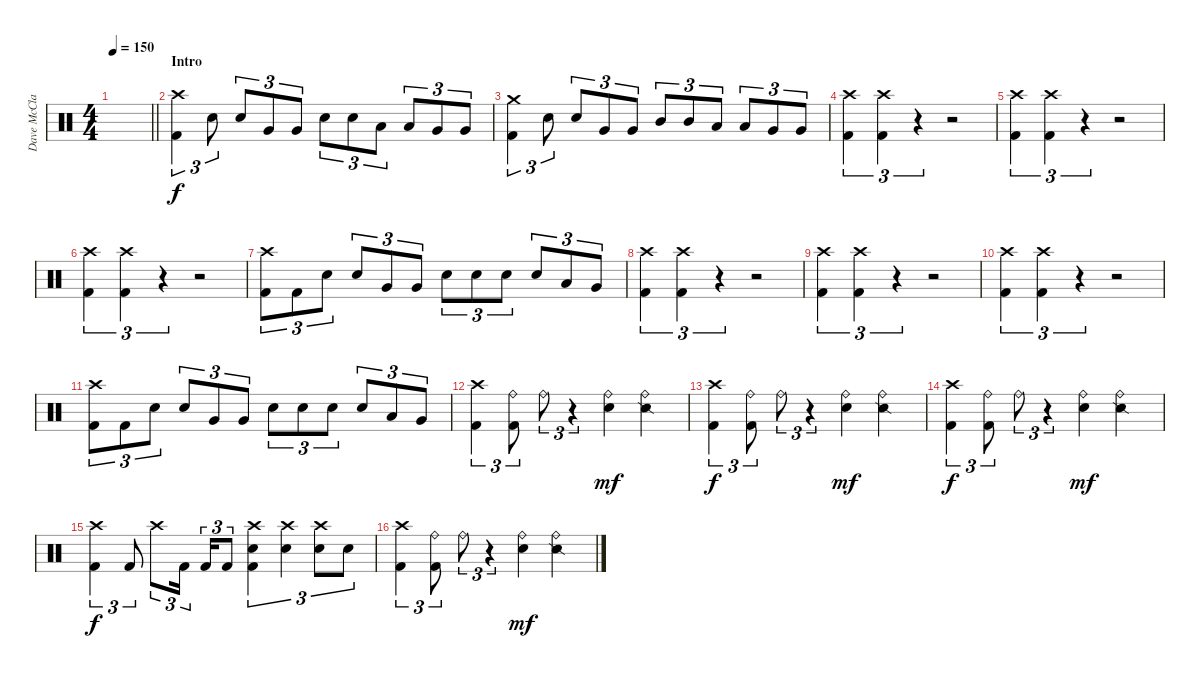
\track ("Dave McClain" "Dave McCla") {instrument percussion}
\staff {score}
\articulation defaults
\ts (4 4)
\tempo 150
\clef neutral
\barLineRight lightlight
\ks c
|
\section ("" "Intro")
("Crash high (hit)" "Kick (hit) 2").4{tu (3 2)} "Snare (hit) 2".8{tu (3 2)} "Snare (hit) 2".8{tu (3 2)} "Very Low Tom (hit)".8{tu (3 2)} "Very Low Tom (hit)".8{tu (3 2)} "Snare (hit) 2".8{tu (3 2)} "Snare (hit) 2".8{tu (3 2)} "Low Tom (hit)".8{tu (3 2)} "Low Tom (hit)".8{tu (3 2)} "Very Low Tom (hit)".8{tu (3 2)} "Very Low Tom (hit)".8{tu (3 2)} |
("Crash medium (hit)" "Kick (hit) 2").4{tu (3 2)} "Snare (hit) 2".8{tu (3 2)} "Snare (hit) 2".8{tu (3 2)} "Very Low Tom (hit)".8{tu (3 2)} "Very Low Tom (hit)".8{tu (3 2)} "Mid Tom (hit)".8{tu (3 2)} "Mid Tom (hit)".8{tu (3 2)} "Low Tom (hit)".8{tu (3 2)} "Low Tom (hit)".8{tu (3 2)} "Very Low Tom (hit)".8{tu (3 2)} "Very Low Tom (hit)".8{tu (3 2)} |
("Crash high (hit)" "Kick (hit) 2").4{tu (3 2)} ("Crash high (hit)" "Kick (hit) 2").4{tu (3 2)} r.4{tu (3 2)} r.2 |
("Crash high (hit)" "Kick (hit) 2").4{tu (3 2)} ("Crash high (hit)" "Kick (hit) 2").4{tu (3 2)} r.4{tu (3 2)} r.2 |
("Crash high (hit)" "Kick (hit) 2").4{tu (3 2)} ("Crash high (hit)" "Kick (hit) 2").4{tu (3 2)} r.4{tu (3 2)} r.2 |
("Crash high (hit)" "Kick (hit) 2").8{tu (3 2)} "Kick (hit) 2".8{tu (3 2)} "Snare (hit) 2".8{tu (3 2)} "Snare (hit) 2".8{tu (3 2)} "Very Low Tom (hit)".8{tu (3 2)} "Very Low Tom (hit)".8{tu (3 2)} "Snare (hit) 2".8{tu (3 2)} "Snare (hit) 2".8{tu (3 2)} "Snare (hit) 2".8{tu (3 2)} "Snare (hit) 2".8{tu (3 2)} "Low Tom (hit)".8{tu (3 2)} "Very Low Tom (hit)".8{tu (3 2)} |
("Crash high (hit)" "Kick (hit) 2").4{tu (3 2)} ("Crash high (hit)" "Kick (hit) 2").4{tu (3 2)} r.4{tu (3 2)} r.2 |
("Crash high (hit)" "Kick (hit) 2").4{tu (3 2)} ("Crash high (hit)" "Kick (hit) 2").4{tu (3 2)} r.4{tu (3 2)} r.2 |
("Crash high (hit)" "Kick (hit) 2").4{tu (3 2)} ("Crash high (hit)" "Kick (hit) 2").4{tu (3 2)} r.4{tu (3 2)} r.2 |
("Crash high (hit)" "Kick (hit) 2").8{tu (3 2)} "Kick (hit) 2".8{tu (3 2)} "Snare (hit) 2".8{tu (3 2)} "Snare (hit) 2".8{tu (3 2)} "Very Low Tom (hit)".8{tu (3 2)} "Very Low Tom (hit)".8{tu (3 2)} "Snare (hit) 2".8{tu (3 2)} "Snare (hit) 2".8{tu (3 2)} "Snare (hit) 2".8{tu (3 2)} "Snare (hit) 2".8{tu (3 2)} "Low Tom (hit)".8{tu (3 2)} "Very Low Tom (hit)".8{tu (3 2)} |
("Crash high (hit)" "Kick (hit) 2").4{tu (3 2)} ("Ride (bell)" "Kick (hit) 2").8{tu (3 2)} "Ride (bell)".8{tu (3 2)} r.4{tu (3 2)} ("Ride (bell)" "Snare (hit) 2").4{dy mf} ("Ride (bell)" "Snare (side stick) 2").4 |
("Crash high (hit)" "Kick (hit) 2").4{tu (3 2) dy f} ("Ride (bell)" "Kick (hit) 2").8{tu (3 2)} "Ride (bell)".8{tu (3 2)} r.4{tu (3 2)} ("Ride (bell)" "Snare (hit) 2").4{dy mf} ("Ride (bell)" "Snare (side stick) 2").4 |
("Crash high (hit)" "Kick (hit) 2").4{tu (3 2) dy f} ("Ride (bell)" "Kick (hit) 2").8{tu (3 2)} "Ride (bell)".8{tu (3 2)} r.4{tu (3 2)} ("Ride (bell)" "Snare (hit) 2").4{dy mf} ("Ride (bell)" "Snare (side stick) 2").4 |
("Crash high (hit)" "Kick (hit) 2").4{tu (3 2) dy f} "Kick (hit) 2".8{tu (3 2)} "Crash high (hit)".8{tu (3 2)} "Kick (hit) 2".16{tu (3 2) beam splitsecondary} "Kick (hit) 2".16{tu (3 2)} "Kick (hit) 2".8{tu (3 2)} ("Crash high (hit)" "Snare (hit) 2" "Kick (hit) 2").4{tu (3 2)} ("Crash high (hit)" "Snare (hit) 2").4{tu (3 2)} ("Crash high (hit)" "Snare (hit) 2").8{tu (3 2)} "Snare (hit) 2".8{tu (3 2)} |
("Crash high (hit)" "Kick (hit) 2").4{tu (3 2)} ("Ride (bell)" "Kick (hit) 2").8{tu (3 2)} "Ride (bell)".8{tu (3 2)} r.4{tu (3 2)} ("Ride (bell)" "Snare (hit) 2").4{dy mf} ("Ride (bell)" "Snare (side stick) 2").4
